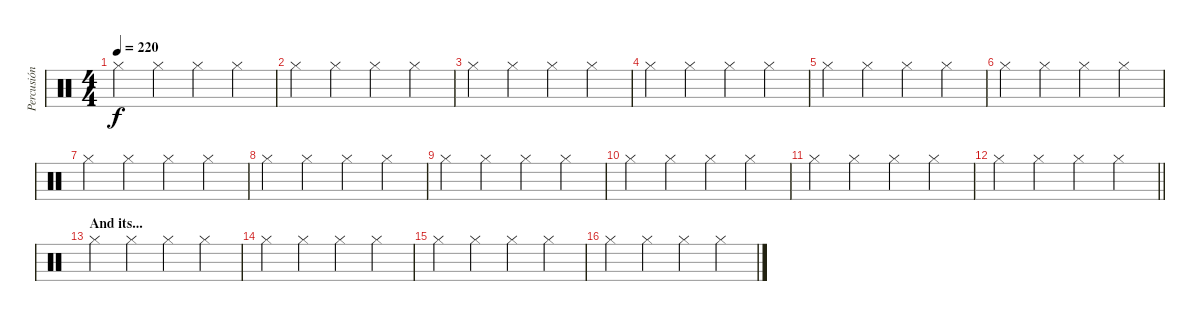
\track ("Percusión" "Percusión") {instrument percussion}
\staff {score}
\articulation defaults
\ts (4 4)
\tempo 220
\clef neutral
\ks c "Hi-Hat (closed)".4{dy f} "Hi-Hat (closed)".4 "Hi-Hat (closed)".4 "Hi-Hat (closed)".4
|
"Hi-Hat (closed)".4 "Hi-Hat (closed)".4 "Hi-Hat (closed)".4 "Hi-Hat (closed)".4 |
"Hi-Hat (closed)".4 "Hi-Hat (closed)".4 "Hi-Hat (closed)".4 "Hi-Hat (closed)".4 |
"Hi-Hat (closed)".4 "Hi-Hat (closed)".4 "Hi-Hat (closed)".4 "Hi-Hat (closed)".4 |
"Hi-Hat (closed)".4 "Hi-Hat (closed)".4 "Hi-Hat (closed)".4 "Hi-Hat (closed)".4 |
"Hi-Hat (closed)".4 "Hi-Hat (closed)".4 "Hi-Hat (closed)".4 "Hi-Hat (closed)".4 |
"Hi-Hat (closed)".4 "Hi-Hat (closed)".4 "Hi-Hat (closed)".4 "Hi-Hat (closed)".4 |
"Hi-Hat (closed)".4 "Hi-Hat (closed)".4 "Hi-Hat (closed)".4 "Hi-Hat (closed)".4 |
"Hi-Hat (closed)".4 "Hi-Hat (closed)".4 "Hi-Hat (closed)".4 "Hi-Hat (closed)".4 |
"Hi-Hat (closed)".4 "Hi-Hat (closed)".4 "Hi-Hat (closed)".4 "Hi-Hat (closed)".4 |
"Hi-Hat (closed)".4 "Hi-Hat (closed)".4 "Hi-Hat (closed)".4 "Hi-Hat (closed)".4 |
\barLineRight lightlight "Hi-Hat (closed)".4 "Hi-Hat (closed)".4 "Hi-Hat (closed)".4 "Hi-Hat (closed)".4
|
\section ("" "And its...")
"Hi-Hat (closed)".4 "Hi-Hat (closed)".4 "Hi-Hat (closed)".4 "Hi-Hat (closed)".4 |
"Hi-Hat (closed)".4 "Hi-Hat (closed)".4 "Hi-Hat (closed)".4 "Hi-Hat (closed)".4 |
"Hi-Hat (closed)".4 "Hi-Hat (closed)".4 "Hi-Hat (closed)".4 "Hi-Hat (closed)".4 |
"Hi-Hat (closed)".4 "Hi-Hat (closed)".4 "Hi-Hat (closed)".4 "Hi-Hat (closed)".4
